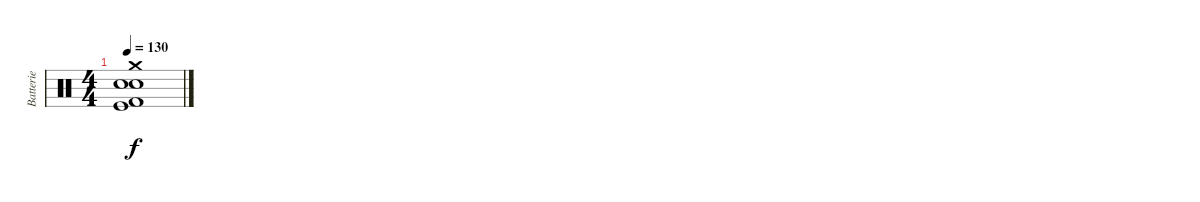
\track ("Batterie" "Batterie") {instrument percussion}
\staff {score}
\articulation defaults
\ts (4 4)
\tempo 130
\clef neutral
\ks c
("Crash medium (hit)" "Snare (hit) 2" "Electric Snare (hit)" "Kick (hit)" "Kick (hit) 2").1{dy f}
